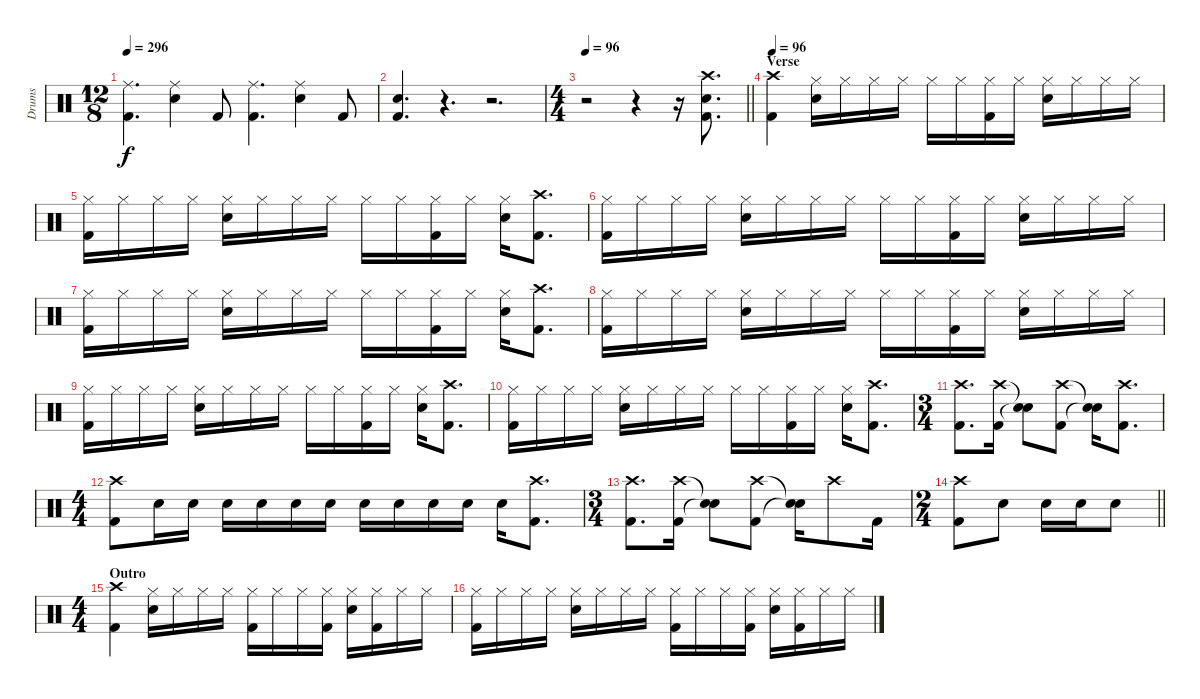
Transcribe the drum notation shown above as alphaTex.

\track ("Drums" "Drums") {instrument percussion}
\staff {score}
\articulation defaults
\ts (12 8)
\tempo 296
\clef neutral
\ks c
("Ride (middle)" "Kick (hit) 2").4{d dy f} ("Ride (middle)" "Electric Snare (hit)").4 "Kick (hit) 2".8 ("Ride (middle)" "Kick (hit) 2").4{d} ("Ride (middle)" "Electric Snare (hit)").4 "Kick (hit) 2".8 |
("Electric Snare (hit)" "Kick (hit) 2").4{d} r.4{d} r.2{d} |
\ts (4 4)
\tempo 96
\barLineRight lightlight
r.2 r.4 r.16 ("Crash high (hit)" "Electric Snare (hit)" "Kick (hit) 2").8{d} |
\section ("" "Verse")
\tempo 96
("Crash high (hit)" "Kick (hit) 2").4 ("Hi-Hat (closed)" "Electric Snare (hit)").16 "Hi-Hat (closed)".16 "Hi-Hat (closed)".16 "Hi-Hat (closed)".16 "Hi-Hat (closed)".16 "Hi-Hat (closed)".16 ("Hi-Hat (closed)" "Kick (hit) 2").16 "Hi-Hat (closed)".16 ("Hi-Hat (closed)" "Electric Snare (hit)").16 "Hi-Hat (closed)".16 "Hi-Hat (closed)".16 "Hi-Hat (closed)".16 |
("Hi-Hat (closed)" "Kick (hit) 2").16 "Hi-Hat (closed)".16 "Hi-Hat (closed)".16 "Hi-Hat (closed)".16 ("Hi-Hat (closed)" "Electric Snare (hit)").16 "Hi-Hat (closed)".16 "Hi-Hat (closed)".16 "Hi-Hat (closed)".16 "Hi-Hat (closed)".16 "Hi-Hat (closed)".16 ("Hi-Hat (closed)" "Kick (hit) 2").16 "Hi-Hat (closed)".16 ("Hi-Hat (closed)" "Electric Snare (hit)").16 ("Crash high (hit)" "Kick (hit) 2").8{d} |
("Hi-Hat (closed)" "Kick (hit) 2").16 "Hi-Hat (closed)".16 "Hi-Hat (closed)".16 "Hi-Hat (closed)".16 ("Hi-Hat (closed)" "Electric Snare (hit)").16 "Hi-Hat (closed)".16 "Hi-Hat (closed)".16 "Hi-Hat (closed)".16 "Hi-Hat (closed)".16 "Hi-Hat (closed)".16 ("Hi-Hat (closed)" "Kick (hit) 2").16 "Hi-Hat (closed)".16 ("Hi-Hat (closed)" "Electric Snare (hit)").16 "Hi-Hat (closed)".16 "Hi-Hat (closed)".16 "Hi-Hat (closed)".16 |
("Hi-Hat (closed)" "Kick (hit) 2").16 "Hi-Hat (closed)".16 "Hi-Hat (closed)".16 "Hi-Hat (closed)".16 ("Hi-Hat (closed)" "Electric Snare (hit)").16 "Hi-Hat (closed)".16 "Hi-Hat (closed)".16 "Hi-Hat (closed)".16 "Hi-Hat (closed)".16 "Hi-Hat (closed)".16 ("Hi-Hat (closed)" "Kick (hit) 2").16 "Hi-Hat (closed)".16 ("Hi-Hat (closed)" "Electric Snare (hit)").16 ("Crash high (hit)" "Kick (hit) 2").8{d} |
("Hi-Hat (closed)" "Kick (hit) 2").16 "Hi-Hat (closed)".16 "Hi-Hat (closed)".16 "Hi-Hat (closed)".16 ("Hi-Hat (closed)" "Electric Snare (hit)").16 "Hi-Hat (closed)".16 "Hi-Hat (closed)".16 "Hi-Hat (closed)".16 "Hi-Hat (closed)".16 "Hi-Hat (closed)".16 ("Hi-Hat (closed)" "Kick (hit) 2").16 "Hi-Hat (closed)".16 ("Hi-Hat (closed)" "Electric Snare (hit)").16 "Hi-Hat (closed)".16 "Hi-Hat (closed)".16 "Hi-Hat (closed)".16 |
("Hi-Hat (closed)" "Kick (hit) 2").16 "Hi-Hat (closed)".16 "Hi-Hat (closed)".16 "Hi-Hat (closed)".16 ("Hi-Hat (closed)" "Electric Snare (hit)").16 "Hi-Hat (closed)".16 "Hi-Hat (closed)".16 "Hi-Hat (closed)".16 "Hi-Hat (closed)".16 "Hi-Hat (closed)".16 ("Hi-Hat (closed)" "Kick (hit) 2").16 "Hi-Hat (closed)".16 ("Hi-Hat (closed)" "Electric Snare (hit)").16 ("Crash high (hit)" "Kick (hit) 2").8{d} |
("Hi-Hat (closed)" "Kick (hit) 2").16 "Hi-Hat (closed)".16 "Hi-Hat (closed)".16 "Hi-Hat (closed)".16 ("Hi-Hat (closed)" "Electric Snare (hit)").16 "Hi-Hat (closed)".16 "Hi-Hat (closed)".16 "Hi-Hat (closed)".16 "Hi-Hat (closed)".16 "Hi-Hat (closed)".16 ("Hi-Hat (closed)" "Kick (hit) 2").16 "Hi-Hat (closed)".16 ("Hi-Hat (closed)" "Electric Snare (hit)").16 ("Crash high (hit)" "Kick (hit) 2").8{d} |
\ts (3 4)
("Crash high (hit)" "Kick (hit) 2").8{d} ("Crash high (hit)" "Kick (hit) 2").16 ("Snare (hit)"{t} "Snare (hit)"{t}).8 ("Crash high (hit)" "Kick (hit) 2").8 ("Snare (hit)"{t} "Snare (hit)"{t}).16 ("Crash high (hit)" "Kick (hit) 2").8{d} |
\ts (4 4)
("Crash high (hit)" "Kick (hit) 2").8 "Electric Snare (hit)".16 "Electric Snare (hit)".16 "Electric Snare (hit)".16 "Electric Snare (hit)".16 "Electric Snare (hit)".16 "Electric Snare (hit)".16 "Electric Snare (hit)".16 "Electric Snare (hit)".16 "Electric Snare (hit)".16 "Electric Snare (hit)".16 "Electric Snare (hit)".16 ("Crash high (hit)" "Kick (hit) 2").8{d} |
\ts (3 4)
("Crash high (hit)" "Kick (hit) 2").8{d} ("Crash high (hit)" "Kick (hit) 2").16 ("Snare (hit)"{t} "Snare (hit)"{t}).8 ("Crash high (hit)" "Kick (hit) 2").8 ("Snare (hit)"{t} "Snare (hit)"{t}).16 "Crash high (hit)".8 "Kick (hit) 2".16 |
\ts (2 4)
\barLineRight lightlight
("Crash high (hit)" "Kick (hit) 2").8 "Electric Snare (hit)".8 "Electric Snare (hit)".16 "Electric Snare (hit)".16 "Electric Snare (hit)".8 |
\ts (4 4)
\section ("" "Outro")
("Crash high (hit)" "Kick (hit) 2").4 ("Hi-Hat (closed)" "Electric Snare (hit)").16 "Hi-Hat (closed)".16 "Hi-Hat (closed)".16 "Hi-Hat (closed)".16 ("Hi-Hat (closed)" "Kick (hit) 2").16 "Hi-Hat (closed)".16 "Hi-Hat (closed)".16 ("Hi-Hat (closed)" "Kick (hit) 2").16 ("Hi-Hat (closed)" "Electric Snare (hit)").16 ("Hi-Hat (closed)" "Kick (hit) 2").16 "Hi-Hat (closed)".16 "Hi-Hat (closed)".16 |
("Hi-Hat (closed)" "Kick (hit) 2").16 "Hi-Hat (closed)".16 "Hi-Hat (closed)".16 "Hi-Hat (closed)".16 ("Hi-Hat (closed)" "Electric Snare (hit)").16 "Hi-Hat (closed)".16 "Hi-Hat (closed)".16 "Hi-Hat (closed)".16 ("Hi-Hat (closed)" "Kick (hit) 2").16 "Hi-Hat (closed)".16 "Hi-Hat (closed)".16 ("Hi-Hat (closed)" "Kick (hit) 2").16 ("Hi-Hat (closed)" "Electric Snare (hit)").16 ("Hi-Hat (closed)" "Kick (hit) 2").16 "Hi-Hat (closed)".16 "Hi-Hat (closed)".16
